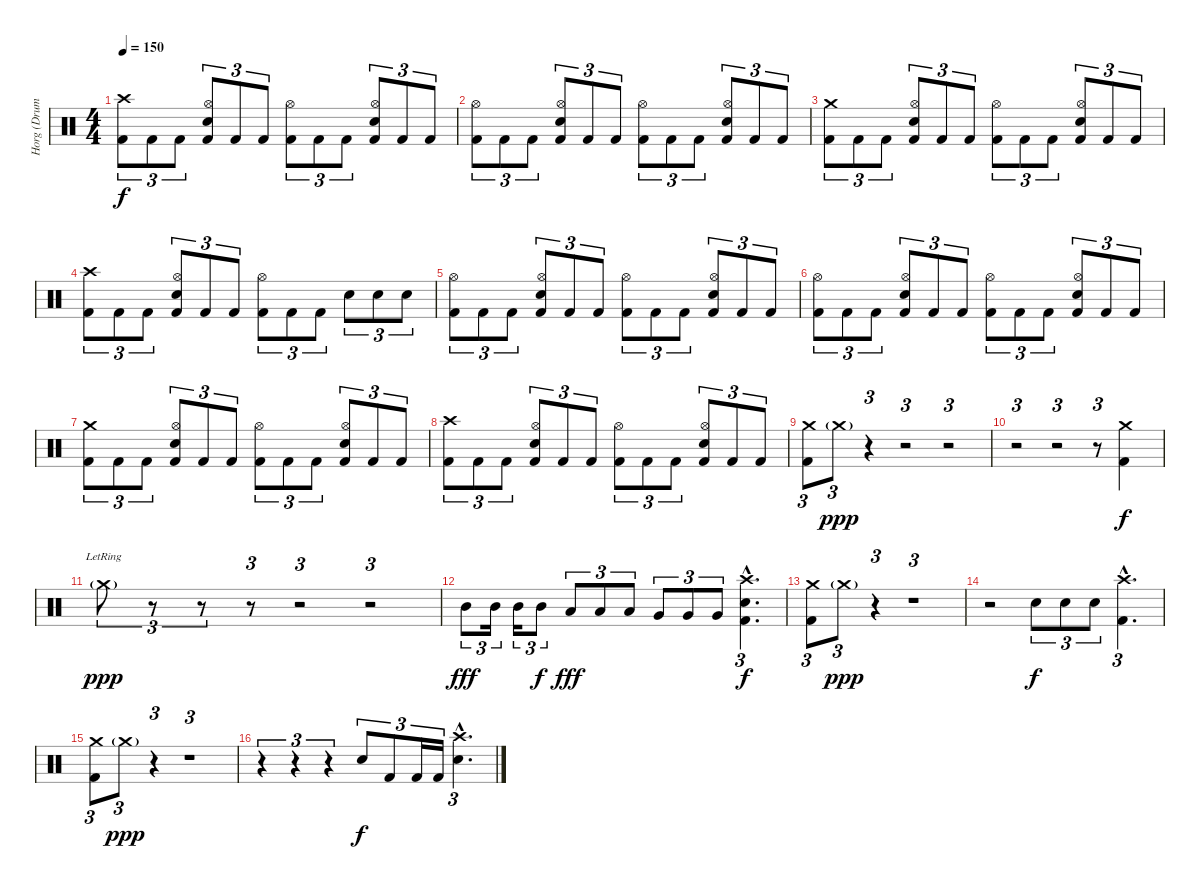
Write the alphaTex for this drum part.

\track ("Horg (Drums)" "Horg (Drum") {instrument percussion}
\staff {score}
\articulation defaults
\ts (4 4)
\tempo 150
\clef neutral
\ks c
("Crash high (hit)" "Kick (hit) 2").8{tu (3 2) dy f} "Kick (hit) 2".8{tu (3 2)} "Kick (hit) 2".8{tu (3 2)} ("Hi-Hat (open)" "Electric Snare (hit)" "Kick (hit) 2").8{tu (3 2)} "Kick (hit) 2".8{tu (3 2)} "Kick (hit) 2".8{tu (3 2)} ("Hi-Hat (open)" "Kick (hit) 2").8{tu (3 2)} "Kick (hit) 2".8{tu (3 2)} "Kick (hit) 2".8{tu (3 2)} ("Hi-Hat (open)" "Electric Snare (hit)" "Kick (hit) 2").8{tu (3 2)} "Kick (hit) 2".8{tu (3 2)} "Kick (hit) 2".8{tu (3 2)} |
("Hi-Hat (open)" "Kick (hit) 2").8{tu (3 2)} "Kick (hit) 2".8{tu (3 2)} "Kick (hit) 2".8{tu (3 2)} ("Hi-Hat (open)" "Electric Snare (hit)" "Kick (hit) 2").8{tu (3 2)} "Kick (hit) 2".8{tu (3 2)} "Kick (hit) 2".8{tu (3 2)} ("Hi-Hat (open)" "Kick (hit) 2").8{tu (3 2)} "Kick (hit) 2".8{tu (3 2)} "Kick (hit) 2".8{tu (3 2)} ("Hi-Hat (open)" "Electric Snare (hit)" "Kick (hit) 2").8{tu (3 2)} "Kick (hit) 2".8{tu (3 2)} "Kick (hit) 2".8{tu (3 2)} |
("Crash medium (hit)" "Kick (hit) 2").8{tu (3 2)} "Kick (hit) 2".8{tu (3 2)} "Kick (hit) 2".8{tu (3 2)} ("Hi-Hat (open)" "Electric Snare (hit)" "Kick (hit) 2").8{tu (3 2)} "Kick (hit) 2".8{tu (3 2)} "Kick (hit) 2".8{tu (3 2)} ("Hi-Hat (open)" "Kick (hit) 2").8{tu (3 2)} "Kick (hit) 2".8{tu (3 2)} "Kick (hit) 2".8{tu (3 2)} ("Hi-Hat (open)" "Electric Snare (hit)" "Kick (hit) 2").8{tu (3 2)} "Kick (hit) 2".8{tu (3 2)} "Kick (hit) 2".8{tu (3 2)} |
("Crash high (hit)" "Kick (hit) 2").8{tu (3 2)} "Kick (hit) 2".8{tu (3 2)} "Kick (hit) 2".8{tu (3 2)} ("Hi-Hat (open)" "Electric Snare (hit)" "Kick (hit) 2").8{tu (3 2)} "Kick (hit) 2".8{tu (3 2)} "Kick (hit) 2".8{tu (3 2)} ("Hi-Hat (open)" "Kick (hit) 2").8{tu (3 2)} "Kick (hit) 2".8{tu (3 2)} "Kick (hit) 2".8{tu (3 2)} "Electric Snare (hit)".8{tu (3 2)} "Electric Snare (hit)".8{tu (3 2)} "Electric Snare (hit)".8{tu (3 2)} |
("Hi-Hat (open)" "Kick (hit) 2").8{tu (3 2)} "Kick (hit) 2".8{tu (3 2)} "Kick (hit) 2".8{tu (3 2)} ("Hi-Hat (open)" "Electric Snare (hit)" "Kick (hit) 2").8{tu (3 2)} "Kick (hit) 2".8{tu (3 2)} "Kick (hit) 2".8{tu (3 2)} ("Hi-Hat (open)" "Kick (hit) 2").8{tu (3 2)} "Kick (hit) 2".8{tu (3 2)} "Kick (hit) 2".8{tu (3 2)} ("Hi-Hat (open)" "Electric Snare (hit)" "Kick (hit) 2").8{tu (3 2)} "Kick (hit) 2".8{tu (3 2)} "Kick (hit) 2".8{tu (3 2)} |
("Hi-Hat (open)" "Kick (hit) 2").8{tu (3 2)} "Kick (hit) 2".8{tu (3 2)} "Kick (hit) 2".8{tu (3 2)} ("Hi-Hat (open)" "Electric Snare (hit)" "Kick (hit) 2").8{tu (3 2)} "Kick (hit) 2".8{tu (3 2)} "Kick (hit) 2".8{tu (3 2)} ("Hi-Hat (open)" "Kick (hit) 2").8{tu (3 2)} "Kick (hit) 2".8{tu (3 2)} "Kick (hit) 2".8{tu (3 2)} ("Hi-Hat (open)" "Electric Snare (hit)" "Kick (hit) 2").8{tu (3 2)} "Kick (hit) 2".8{tu (3 2)} "Kick (hit) 2".8{tu (3 2)} |
("Crash medium (hit)" "Kick (hit) 2").8{tu (3 2)} "Kick (hit) 2".8{tu (3 2)} "Kick (hit) 2".8{tu (3 2)} ("Hi-Hat (open)" "Electric Snare (hit)" "Kick (hit) 2").8{tu (3 2)} "Kick (hit) 2".8{tu (3 2)} "Kick (hit) 2".8{tu (3 2)} ("Hi-Hat (open)" "Kick (hit) 2").8{tu (3 2)} "Kick (hit) 2".8{tu (3 2)} "Kick (hit) 2".8{tu (3 2)} ("Hi-Hat (open)" "Electric Snare (hit)" "Kick (hit) 2").8{tu (3 2)} "Kick (hit) 2".8{tu (3 2)} "Kick (hit) 2".8{tu (3 2)} |
("Crash high (hit)" "Kick (hit) 2").8{tu (3 2)} "Kick (hit) 2".8{tu (3 2)} "Kick (hit) 2".8{tu (3 2)} ("Hi-Hat (open)" "Electric Snare (hit)" "Kick (hit) 2").8{tu (3 2)} "Kick (hit) 2".8{tu (3 2)} "Kick (hit) 2".8{tu (3 2)} ("Hi-Hat (open)" "Kick (hit) 2").8{tu (3 2)} "Kick (hit) 2".8{tu (3 2)} "Kick (hit) 2".8{tu (3 2)} ("Hi-Hat (open)" "Electric Snare (hit)" "Kick (hit) 2").8{tu (3 2)} "Kick (hit) 2".8{tu (3 2)} "Kick (hit) 2".8{tu (3 2)} |
("Crash medium (hit)" "Kick (hit) 2").8{tu (3 2)} "Crash medium (hit)"{g}.8{tu (3 2) dy ppp volume 0} r.4{tu (3 2)} r.2{tu (3 2)} r.2{tu (3 2)} |
r.2{tu (3 2) volume 15} r.2{tu (3 2)} r.8{tu (3 2)} ("Crash medium (hit)" "Kick (hit) 2").4{dy f} |
"Crash medium (hit)"{g lr}.8{tu (3 2) dy ppp} r.8{tu (3 2)} r.8{tu (3 2)} r.8{tu (3 2)} r.2{tu (3 2)} r.2{tu (3 2)} |
"Mid Tom (hit)".8{tu (3 2) dy fff} "Mid Tom (hit)".16{tu (3 2)} "Mid Tom (hit)".16{tu (3 2)} "Mid Tom (hit)".8{tu (3 2) dy f} "Low Tom (hit)".8{tu (3 2) dy fff} "Low Tom (hit)".8{tu (3 2)} "Low Tom (hit)".8{tu (3 2)} "Very Low Tom (hit)".8{tu (3 2)} "Very Low Tom (hit)".8{tu (3 2)} "Very Low Tom (hit)".8{tu (3 2)} ("Crash high (hit)"{hac} "Electric Snare (hit)"{hac} "Kick (hit) 2"{hac}).4{d tu (3 2) dy f} |
("Crash medium (hit)" "Kick (hit) 2").8{tu (3 2)} "Crash medium (hit)"{g}.8{tu (3 2) dy ppp volume 0} r.4{tu (3 2)} r.1{tu (3 2)} |
r.2{volume 15} "Electric Snare (hit)".8{tu (3 2) dy f} "Electric Snare (hit)".8{tu (3 2)} "Electric Snare (hit)".8{tu (3 2)} ("Crash high (hit)"{hac} "Kick (hit) 2"{hac}).4{d tu (3 2)} |
("Crash medium (hit)" "Kick (hit) 2").8{tu (3 2)} "Crash medium (hit)"{g}.8{tu (3 2) dy ppp volume 0} r.4{tu (3 2)} r.1{tu (3 2)} |
r.4{tu (3 2) volume 15} r.4{tu (3 2)} r.4{tu (3 2)} "Electric Snare (hit)".8{tu (3 2) dy f} "Kick (hit) 2".8{tu (3 2)} "Kick (hit) 2".16{tu (3 2)} "Kick (hit) 2".16{tu (3 2)} ("Crash high (hit)"{hac} "Electric Snare (hit)"{hac}).4{d tu (3 2)}
